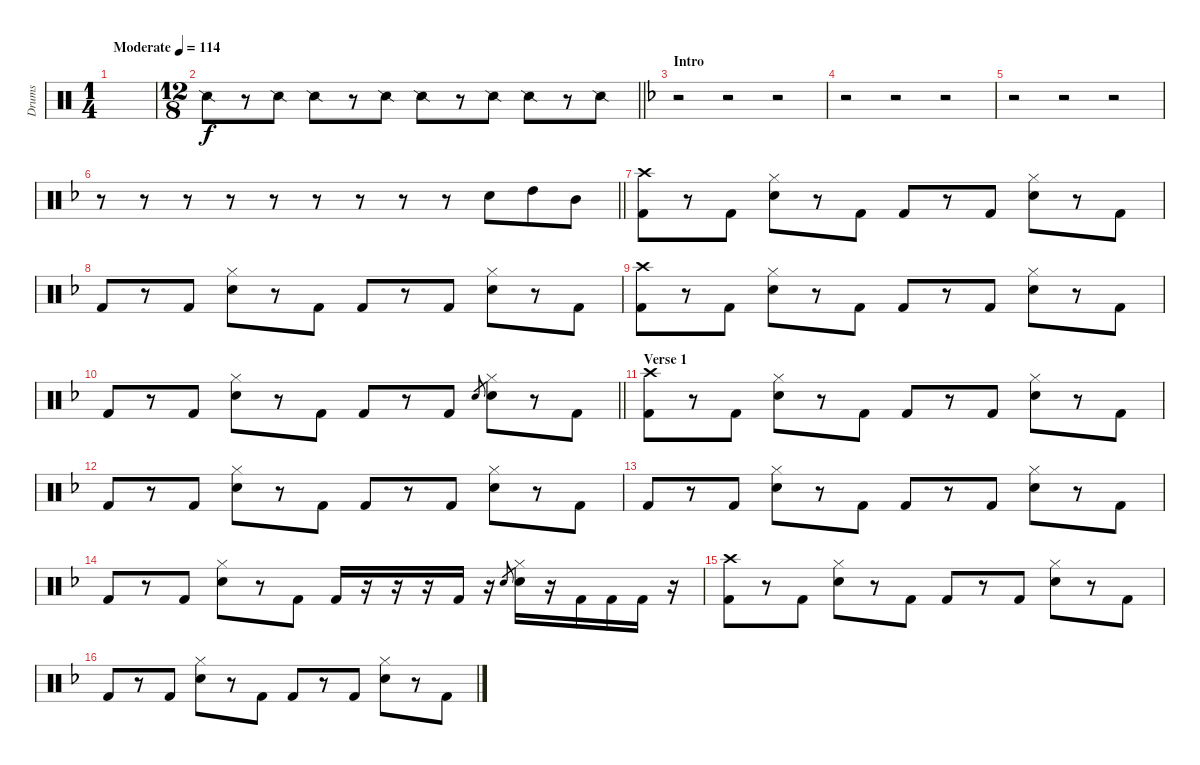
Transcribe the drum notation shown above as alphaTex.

\track ("Drums" "Drums") {instrument percussion}
\staff {score}
\articulation defaults
\ts (1 4)
\tempo (114 "Moderate")
\clef neutral
\ks c
|
\ts (12 8)
\barLineRight lightlight "Snare (side stick) 2".8
r.8 "Snare (side stick) 2".8 "Snare (side stick) 2".8 r.8 "Snare (side stick) 2".8 "Snare (side stick) 2".8 r.8 "Snare (side stick) 2".8 "Snare (side stick) 2".8 r.8 "Snare (side stick) 2".8 |
\section ("" "Intro")
\ks f
r.2 r.2 r.2 |
r.2 r.2 r.2 |
r.2 r.2 r.2 |
\barLineRight lightlight
r.8 r.8 r.8 r.8 r.8 r.8 r.8 r.8 r.8 "Electric Snare (hit)".8 "High Tom (hit)".8 "Mid Tom (hit)".8 |
("Crash high (hit)" "Kick (hit) 2").8 r.8 "Kick (hit) 2".8 ("Hi-Hat (closed)" "Electric Snare (hit)").8 r.8 "Kick (hit) 2".8 "Kick (hit) 2".8 r.8 "Kick (hit) 2".8 ("Hi-Hat (closed)" "Electric Snare (hit)").8 r.8 "Kick (hit) 2".8 |
"Kick (hit) 2".8 r.8 "Kick (hit) 2".8 ("Hi-Hat (closed)" "Electric Snare (hit)").8 r.8 "Kick (hit) 2".8 "Kick (hit) 2".8 r.8 "Kick (hit) 2".8 ("Hi-Hat (closed)" "Electric Snare (hit)").8 r.8 "Kick (hit) 2".8 |
("Crash high (hit)" "Kick (hit) 2").8 r.8 "Kick (hit) 2".8 ("Hi-Hat (closed)" "Electric Snare (hit)").8 r.8 "Kick (hit) 2".8 "Kick (hit) 2".8 r.8 "Kick (hit) 2".8 ("Hi-Hat (closed)" "Electric Snare (hit)").8 r.8 "Kick (hit) 2".8 |
\barLineRight lightlight "Kick (hit) 2".8
r.8 "Kick (hit) 2".8 ("Hi-Hat (closed)" "Electric Snare (hit)").8 r.8 "Kick (hit) 2".8 "Kick (hit) 2".8 r.8 "Kick (hit) 2".8 "Electric Snare (hit)".8{gr} ("Hi-Hat (closed)" "Electric Snare (hit)").8 r.8 "Kick (hit) 2".8 |
\section ("" "Verse 1")
("Crash high (hit)" "Kick (hit) 2").8 r.8 "Kick (hit) 2".8 ("Hi-Hat (closed)" "Electric Snare (hit)").8 r.8 "Kick (hit) 2".8 "Kick (hit) 2".8 r.8 "Kick (hit) 2".8 ("Hi-Hat (closed)" "Electric Snare (hit)").8 r.8 "Kick (hit) 2".8 |
"Kick (hit) 2".8 r.8 "Kick (hit) 2".8 ("Hi-Hat (closed)" "Electric Snare (hit)").8 r.8 "Kick (hit) 2".8 "Kick (hit) 2".8 r.8 "Kick (hit) 2".8 ("Hi-Hat (closed)" "Electric Snare (hit)").8 r.8 "Kick (hit) 2".8 |
"Kick (hit) 2".8 r.8 "Kick (hit) 2".8 ("Hi-Hat (closed)" "Electric Snare (hit)").8 r.8 "Kick (hit) 2".8 "Kick (hit) 2".8 r.8 "Kick (hit) 2".8 ("Hi-Hat (closed)" "Electric Snare (hit)").8 r.8 "Kick (hit) 2".8 |
"Kick (hit) 2".8 r.8 "Kick (hit) 2".8 ("Hi-Hat (closed)" "Electric Snare (hit)").8 r.8 "Kick (hit) 2".8 "Kick (hit) 2".16 r.16 r.16 r.16 "Kick (hit) 2".16 r.16 "Electric Snare (hit)".8{gr} ("Hi-Hat (closed)" "Electric Snare (hit)").16 r.16 "Kick (hit) 2".16 "Kick (hit) 2".16 "Kick (hit) 2".16 r.16 |
("Crash high (hit)" "Kick (hit) 2").8 r.8 "Kick (hit) 2".8 ("Hi-Hat (closed)" "Electric Snare (hit)").8 r.8 "Kick (hit) 2".8 "Kick (hit) 2".8 r.8 "Kick (hit) 2".8 ("Hi-Hat (closed)" "Electric Snare (hit)").8 r.8 "Kick (hit) 2".8 |
"Kick (hit) 2".8 r.8 "Kick (hit) 2".8 ("Hi-Hat (closed)" "Electric Snare (hit)").8 r.8 "Kick (hit) 2".8 "Kick (hit) 2".8 r.8 "Kick (hit) 2".8 ("Hi-Hat (closed)" "Electric Snare (hit)").8 r.8 "Kick (hit) 2".8
